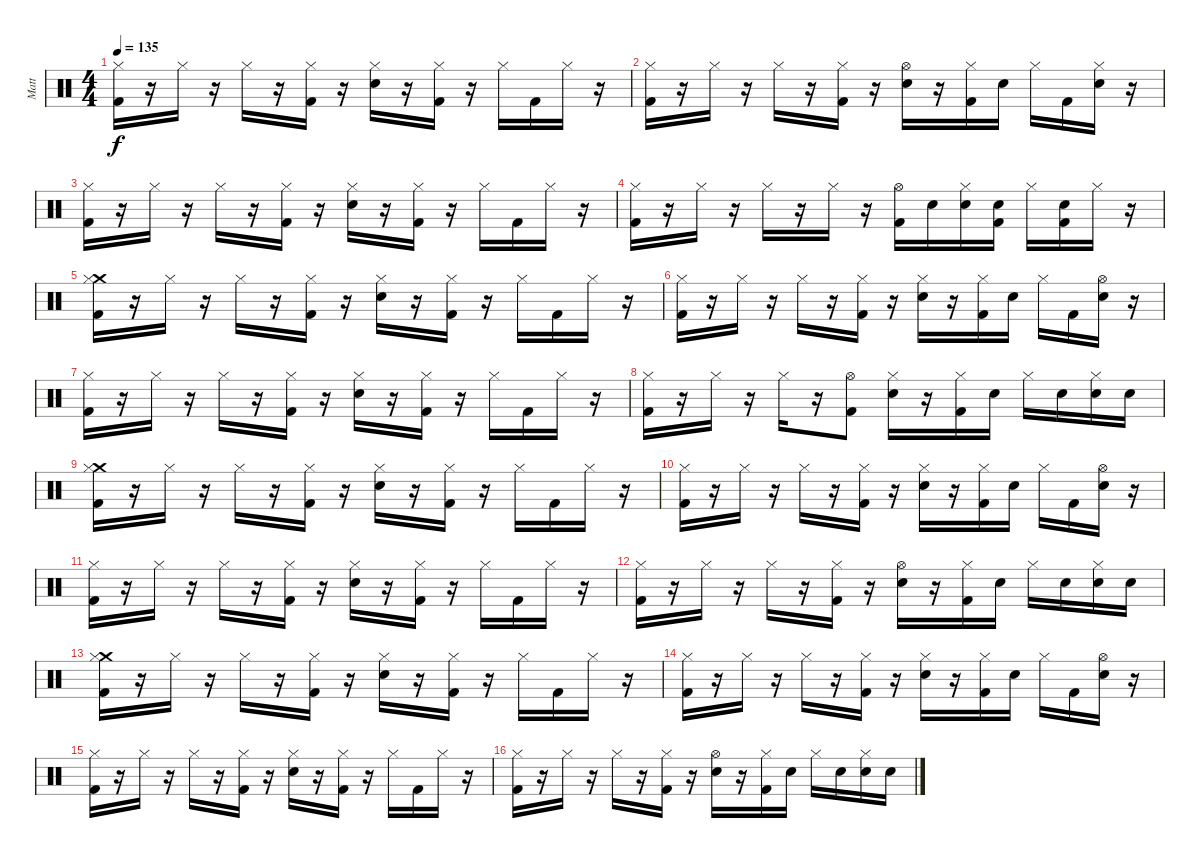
\track ("Matt" "Matt") {instrument percussion}
\staff {score}
\articulation defaults
\ts (4 4)
\tempo 135
\clef neutral
\ks c
("Hi-Hat (closed)" "Kick (hit) 2").16{dy f} r.16 "Hi-Hat (closed)".16 r.16 "Hi-Hat (closed)".16 r.16 ("Hi-Hat (closed)" "Kick (hit) 2").16 r.16 ("Hi-Hat (closed)" "Snare (hit) 2").16 r.16 ("Hi-Hat (closed)" "Kick (hit) 2").16 r.16 "Hi-Hat (closed)".16 "Kick (hit) 2".16 "Hi-Hat (closed)".16 r.16 |
("Hi-Hat (closed)" "Kick (hit) 2").16 r.16 "Hi-Hat (closed)".16 r.16 "Hi-Hat (closed)".16 r.16 ("Hi-Hat (closed)" "Kick (hit) 2").16 r.16 ("Hi-Hat (open)" "Snare (hit) 2").16 r.16 ("Hi-Hat (closed)" "Kick (hit) 2").16 "Snare (hit) 2".16 "Hi-Hat (closed)".16 "Kick (hit) 2".16 ("Hi-Hat (closed)" "Snare (hit) 2").16 r.16 |
("Hi-Hat (closed)" "Kick (hit) 2").16 r.16 "Hi-Hat (closed)".16 r.16 "Hi-Hat (closed)".16 r.16 ("Hi-Hat (closed)" "Kick (hit) 2").16 r.16 ("Hi-Hat (closed)" "Snare (hit) 2").16 r.16 ("Hi-Hat (closed)" "Kick (hit) 2").16 r.16 "Hi-Hat (closed)".16 "Kick (hit) 2".16 "Hi-Hat (closed)".16 r.16 |
("Hi-Hat (closed)" "Kick (hit) 2").16 r.16 "Hi-Hat (closed)".16 r.16 "Hi-Hat (closed)".16 r.16 "Hi-Hat (closed)".16 r.16 ("Hi-Hat (open)" "Kick (hit) 2").16 "Snare (hit) 2".16 ("Hi-Hat (closed)" "Snare (hit) 2").16 ("Snare (hit) 2" "Kick (hit) 2").16 "Hi-Hat (closed)".16 ("Snare (hit) 2" "Kick (hit) 2").16 "Hi-Hat (closed)".16 r.16 |
("Crash medium (hit)" "Hi-Hat (closed)" "Kick (hit) 2").16 r.16 "Hi-Hat (closed)".16 r.16 "Hi-Hat (closed)".16 r.16 ("Hi-Hat (closed)" "Kick (hit) 2").16 r.16 ("Hi-Hat (closed)" "Snare (hit) 2").16 r.16 ("Hi-Hat (closed)" "Kick (hit) 2").16 r.16 "Hi-Hat (closed)".16 "Kick (hit) 2".16 "Hi-Hat (closed)".16 r.16 |
("Hi-Hat (closed)" "Kick (hit) 2").16 r.16 "Hi-Hat (closed)".16 r.16 "Hi-Hat (closed)".16 r.16 ("Hi-Hat (closed)" "Kick (hit) 2").16 r.16 ("Hi-Hat (closed)" "Snare (hit) 2").16 r.16 ("Hi-Hat (closed)" "Kick (hit) 2").16 "Snare (hit) 2".16 "Hi-Hat (closed)".16 "Kick (hit) 2".16 ("Hi-Hat (open)" "Snare (hit) 2").16 r.16 |
("Hi-Hat (closed)" "Kick (hit) 2").16 r.16 "Hi-Hat (closed)".16 r.16 "Hi-Hat (closed)".16 r.16 ("Hi-Hat (closed)" "Kick (hit) 2").16 r.16 ("Hi-Hat (closed)" "Snare (hit) 2").16 r.16 ("Hi-Hat (closed)" "Kick (hit) 2").16 r.16 "Hi-Hat (closed)".16 "Kick (hit) 2".16 "Hi-Hat (closed)".16 r.16 |
("Hi-Hat (closed)" "Kick (hit) 2").16 r.16 "Hi-Hat (closed)".16 r.16 "Hi-Hat (closed)".16 r.16 ("Hi-Hat (open)" "Kick (hit) 2").8 ("Hi-Hat (closed)" "Snare (hit) 2").16 r.16 ("Hi-Hat (closed)" "Kick (hit) 2").16 "Snare (hit) 2".16 "Hi-Hat (closed)".16 "Snare (hit) 2".16 ("Hi-Hat (closed)" "Snare (hit) 2").16 "Snare (hit) 2".16 |
("Crash medium (hit)" "Hi-Hat (closed)" "Kick (hit) 2").16 r.16 "Hi-Hat (closed)".16 r.16 "Hi-Hat (closed)".16 r.16 ("Hi-Hat (closed)" "Kick (hit) 2").16 r.16 ("Hi-Hat (closed)" "Snare (hit) 2").16 r.16 ("Hi-Hat (closed)" "Kick (hit) 2").16 r.16 "Hi-Hat (closed)".16 "Kick (hit) 2".16 "Hi-Hat (closed)".16 r.16 |
("Hi-Hat (closed)" "Kick (hit) 2").16 r.16 "Hi-Hat (closed)".16 r.16 "Hi-Hat (closed)".16 r.16 ("Hi-Hat (closed)" "Kick (hit) 2").16 r.16 ("Hi-Hat (closed)" "Snare (hit) 2").16 r.16 ("Hi-Hat (closed)" "Kick (hit) 2").16 "Snare (hit) 2".16 "Hi-Hat (closed)".16 "Kick (hit) 2".16 ("Hi-Hat (open)" "Snare (hit) 2").16 r.16 |
("Hi-Hat (closed)" "Kick (hit) 2").16 r.16 "Hi-Hat (closed)".16 r.16 "Hi-Hat (closed)".16 r.16 ("Hi-Hat (closed)" "Kick (hit) 2").16 r.16 ("Hi-Hat (closed)" "Snare (hit) 2").16 r.16 ("Hi-Hat (closed)" "Kick (hit) 2").16 r.16 "Hi-Hat (closed)".16 "Kick (hit) 2".16 "Hi-Hat (closed)".16 r.16 |
("Hi-Hat (closed)" "Kick (hit) 2").16 r.16 "Hi-Hat (closed)".16 r.16 "Hi-Hat (closed)".16 r.16 ("Hi-Hat (closed)" "Kick (hit) 2").16 r.16 ("Hi-Hat (open)" "Snare (hit) 2").16 r.16 ("Hi-Hat (closed)" "Kick (hit) 2").16 "Snare (hit) 2".16 "Hi-Hat (closed)".16 "Snare (hit) 2".16 ("Hi-Hat (closed)" "Snare (hit) 2").16 "Snare (hit) 2".16 |
("Crash medium (hit)" "Hi-Hat (closed)" "Kick (hit) 2").16 r.16 "Hi-Hat (closed)".16 r.16 "Hi-Hat (closed)".16 r.16 ("Hi-Hat (closed)" "Kick (hit) 2").16 r.16 ("Hi-Hat (closed)" "Snare (hit) 2").16 r.16 ("Hi-Hat (closed)" "Kick (hit) 2").16 r.16 "Hi-Hat (closed)".16 "Kick (hit) 2".16 "Hi-Hat (closed)".16 r.16 |
("Hi-Hat (closed)" "Kick (hit) 2").16 r.16 "Hi-Hat (closed)".16 r.16 "Hi-Hat (closed)".16 r.16 ("Hi-Hat (closed)" "Kick (hit) 2").16 r.16 ("Hi-Hat (closed)" "Snare (hit) 2").16 r.16 ("Hi-Hat (closed)" "Kick (hit) 2").16 "Snare (hit) 2".16 "Hi-Hat (closed)".16 "Kick (hit) 2".16 ("Hi-Hat (open)" "Snare (hit) 2").16 r.16 |
("Hi-Hat (closed)" "Kick (hit) 2").16 r.16 "Hi-Hat (closed)".16 r.16 "Hi-Hat (closed)".16 r.16 ("Hi-Hat (closed)" "Kick (hit) 2").16 r.16 ("Hi-Hat (closed)" "Snare (hit) 2").16 r.16 ("Hi-Hat (closed)" "Kick (hit) 2").16 r.16 "Hi-Hat (closed)".16 "Kick (hit) 2".16 "Hi-Hat (closed)".16 r.16 |
("Hi-Hat (closed)" "Kick (hit) 2").16 r.16 "Hi-Hat (closed)".16 r.16 "Hi-Hat (closed)".16 r.16 ("Hi-Hat (closed)" "Kick (hit) 2").16 r.16 ("Hi-Hat (open)" "Snare (hit) 2").16 r.16 ("Hi-Hat (closed)" "Kick (hit) 2").16 "Snare (hit) 2".16 "Hi-Hat (closed)".16 "Snare (hit) 2".16 ("Hi-Hat (closed)" "Snare (hit) 2").16 "Snare (hit) 2".16
